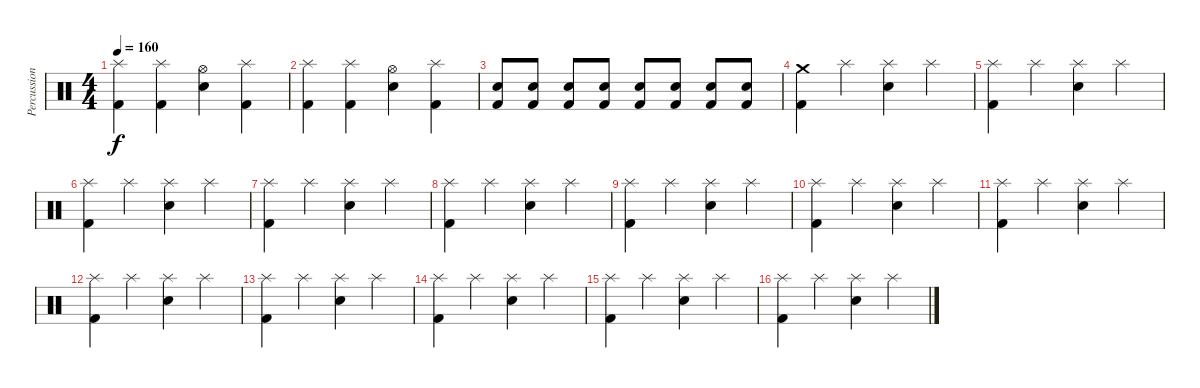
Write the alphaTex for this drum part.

\track ("Percussion" "Percussion") {instrument percussion}
\staff {score}
\articulation defaults
\ts (4 4)
\tempo 160
\clef neutral
\ks c
("Splash (hit)" "Kick (hit) 2").4{dy f} ("Splash (hit)" "Kick (hit) 2").4 ("Hi-Hat (open)" "Electric Snare (hit)").4 ("Splash (hit)" "Kick (hit) 2").4 |
("Splash (hit)" "Kick (hit) 2").4 ("Splash (hit)" "Kick (hit) 2").4 ("Hi-Hat (open)" "Electric Snare (hit)").4 ("Splash (hit)" "Kick (hit) 2").4 |
("Electric Snare (hit)" "Kick (hit) 2").8 ("Electric Snare (hit)" "Kick (hit) 2").8 ("Electric Snare (hit)" "Kick (hit) 2").8 ("Electric Snare (hit)" "Kick (hit) 2").8 ("Electric Snare (hit)" "Kick (hit) 2").8 ("Electric Snare (hit)" "Kick (hit) 2").8 ("Electric Snare (hit)" "Kick (hit) 2").8 ("Electric Snare (hit)" "Kick (hit) 2").8 |
("Crash medium (hit)" "Kick (hit) 2").4 "Splash (hit)".4 ("Splash (hit)" "Electric Snare (hit)").4 "Splash (hit)".4 |
("Splash (hit)" "Kick (hit) 2").4 "Splash (hit)".4 ("Splash (hit)" "Electric Snare (hit)").4 "Splash (hit)".4 |
("Splash (hit)" "Kick (hit) 2").4 "Splash (hit)".4 ("Splash (hit)" "Electric Snare (hit)").4 "Splash (hit)".4 |
("Splash (hit)" "Kick (hit) 2").4 "Splash (hit)".4 ("Splash (hit)" "Electric Snare (hit)").4 "Splash (hit)".4 |
("Splash (hit)" "Kick (hit) 2").4 "Splash (hit)".4 ("Splash (hit)" "Electric Snare (hit)").4 "Splash (hit)".4 |
("Splash (hit)" "Kick (hit) 2").4 "Splash (hit)".4 ("Splash (hit)" "Electric Snare (hit)").4 "Splash (hit)".4 |
("Splash (hit)" "Kick (hit) 2").4 "Splash (hit)".4 ("Splash (hit)" "Electric Snare (hit)").4 "Splash (hit)".4 |
("Splash (hit)" "Kick (hit) 2").4 "Splash (hit)".4 ("Splash (hit)" "Electric Snare (hit)").4 "Splash (hit)".4 |
("Splash (hit)" "Kick (hit) 2").4 "Splash (hit)".4 ("Splash (hit)" "Electric Snare (hit)").4 "Splash (hit)".4 |
("Splash (hit)" "Kick (hit) 2").4 "Splash (hit)".4 ("Splash (hit)" "Electric Snare (hit)").4 "Splash (hit)".4 |
("Splash (hit)" "Kick (hit) 2").4 "Splash (hit)".4 ("Splash (hit)" "Electric Snare (hit)").4 "Splash (hit)".4 |
("Splash (hit)" "Kick (hit) 2").4 "Splash (hit)".4 ("Splash (hit)" "Electric Snare (hit)").4 "Splash (hit)".4 |
("Splash (hit)" "Kick (hit) 2").4 "Splash (hit)".4 ("Splash (hit)" "Electric Snare (hit)").4 "Splash (hit)".4
